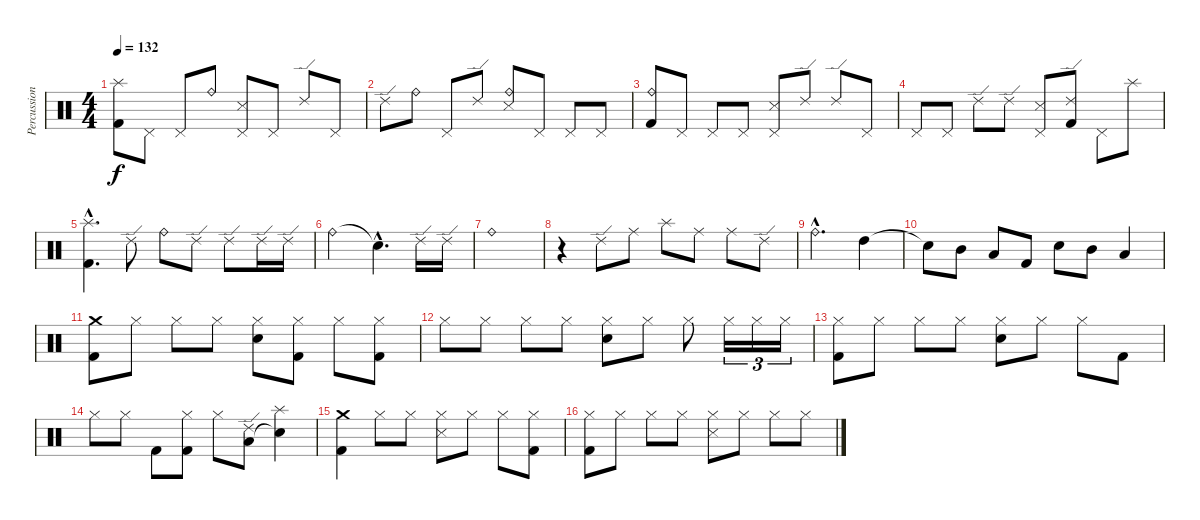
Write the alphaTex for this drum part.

\track ("Percussion" "Percussion") {instrument percussion}
\staff {score}
\articulation defaults
\ts (4 4)
\tempo 132
\clef neutral
\ks c
("Splash (hit)" "Kick (hit) 2").8{dy f} "Pedal Hi-Hat (hit)".8 "Pedal Hi-Hat (hit)".8 "Ride (bell)".8 ("Pedal Hi-Hat (hit)" "Snare (side stick) 3").8 "Pedal Hi-Hat (hit)".8 "Ride (edge) 2".8 "Pedal Hi-Hat (hit)".8 |
"Ride (edge) 2".8 "Ride (bell)".8 "Pedal Hi-Hat (hit)".8 "Ride (edge) 2".8 ("Ride (bell)" "Snare (side stick) 3").8 "Pedal Hi-Hat (hit)".8 "Pedal Hi-Hat (hit)".8 "Pedal Hi-Hat (hit)".8 |
("Ride (bell)" "Kick (hit) 2").8 "Pedal Hi-Hat (hit)".8 "Pedal Hi-Hat (hit)".8 "Pedal Hi-Hat (hit)".8 ("Pedal Hi-Hat (hit)" "Snare (side stick) 3").8 "Ride (edge) 2".8 "Ride (edge) 2".8 "Pedal Hi-Hat (hit)".8 |
"Pedal Hi-Hat (hit)".8 "Pedal Hi-Hat (hit)".8 "Ride (edge) 2".8 "Ride (edge) 2".8 ("Pedal Hi-Hat (hit)" "Snare (side stick) 3").8 ("Ride (edge) 2" "Kick (hit) 2").8 "Pedal Hi-Hat (hit)".8 "Splash (hit)".8 |
("Splash (hit)"{hac} "Kick (hit) 2"{hac}).4{d} "Ride (edge) 2".8 "Ride (bell)".8 "Ride (edge) 2".8 "Ride (edge) 2".8 "Ride (edge) 2".16 "Ride (edge) 2".16 |
"Ride (bell)".2 "Snare (hit)"{hac t}.4{d} "Ride (edge) 2".16 "Ride (edge) 2".16 |
"Ride (bell)".1 |
r.4 "Ride (edge) 2".8 "Ride (middle)".8 "Splash (hit)".8 "Ride (middle)".8 "Ride (middle)".8 "Ride (edge) 2".8 |
"Ride (bell)"{hac}.2{d} "High Tom (hit)".4 |
"Snare (hit)"{t}.8 "Mid Tom (hit)".8 "Low Tom (hit)".8 "Kick (hit) 2".8 "Snare (hit) 2".8 "Mid Tom (hit)".8 "Low Tom (hit)".4 |
("Crash medium (hit)" "Kick (hit) 2").8 "Hi-Hat (closed)".8 "Hi-Hat (closed)".8 "Hi-Hat (closed)".8 ("Hi-Hat (closed)" "Snare (hit) 2").8 ("Hi-Hat (closed)" "Kick (hit) 2").8 "Hi-Hat (closed)".8 ("Hi-Hat (closed)" "Kick (hit) 2").8 |
"Hi-Hat (closed)".8 "Hi-Hat (closed)".8 "Hi-Hat (closed)".8 "Hi-Hat (closed)".8 ("Hi-Hat (closed)" "Snare (hit) 2").8 "Hi-Hat (closed)".8 "Hi-Hat (closed)".8 "Hi-Hat (closed)".16{tu (3 2)} "Hi-Hat (closed)".16{tu (3 2)} "Hi-Hat (closed)".16{tu (3 2)} |
("Hi-Hat (closed)" "Kick (hit) 2").8 "Hi-Hat (closed)".8 "Hi-Hat (closed)".8 "Hi-Hat (closed)".8 ("Hi-Hat (closed)" "Snare (hit) 2").8 "Hi-Hat (closed)".8 "Hi-Hat (closed)".8 "Kick (hit) 2".8 |
"Hi-Hat (closed)".8 "Hi-Hat (closed)".8 "Kick (hit) 2".8 ("Hi-Hat (closed)" "Kick (hit) 2").8 "Hi-Hat (closed)".8 ("Ride (edge) 2" "Low Tom (hit)").8 ("Splash (hit)" "Snare (hit)"{t}).4 |
("Crash medium (hit)" "Kick (hit) 2").4 "Hi-Hat (closed)".8 "Hi-Hat (closed)".8 ("Hi-Hat (closed)" "Snare (side stick) 3").8 "Hi-Hat (closed)".8 "Hi-Hat (closed)".8 ("Hi-Hat (closed)" "Kick (hit) 2").8 |
("Hi-Hat (closed)" "Kick (hit) 2").8 "Hi-Hat (closed)".8 "Hi-Hat (closed)".8 "Hi-Hat (closed)".8 ("Hi-Hat (closed)" "Snare (side stick) 3").8 "Hi-Hat (closed)".8 "Hi-Hat (closed)".8 "Hi-Hat (closed)".8
